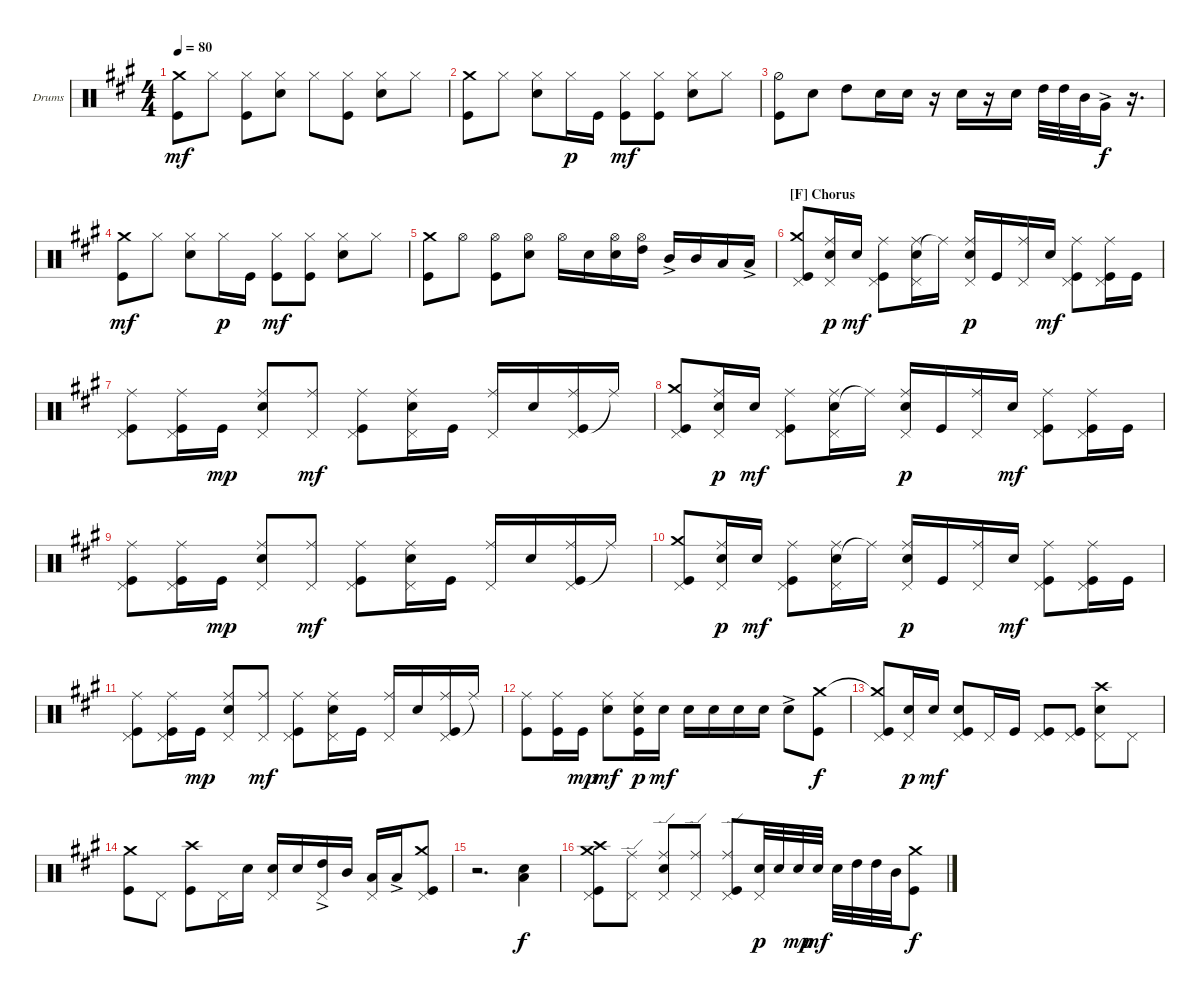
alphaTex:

\defaultSystemsLayout 4
\bracketExtendMode groupsimilarinstruments
\firstSystemTrackNameOrientation horizontal
\otherSystemsTrackNameOrientation horizontal
\track ("Dominic Boyce (Drums)" "Drums") {multiBarRest instrument percussion}
\staff {score}
\articulation defaults
\ts (4 4)
\tempo 80
\clef neutral
\ks a
("Kick (hit)" "Crash medium (hit)").8{dy mf} "Hi-Hat (closed)".8 ("Hi-Hat (closed)" "Kick (hit)").8 ("Hi-Hat (closed)" "Snare (hit) 2").8 "Hi-Hat (closed)".8 ("Kick (hit)" "Hi-Hat (closed)").8 ("Snare (hit) 2" "Hi-Hat (closed)").8 "Hi-Hat (closed)".8 |
("Kick (hit)" "Crash medium (hit)").8 "Hi-Hat (closed)".8 ("Snare (hit) 2" "Hi-Hat (closed)").8 "Hi-Hat (closed)".16{dy p} "Kick (hit)".16 ("Kick (hit)" "Hi-Hat (closed)").8{dy mf} ("Kick (hit)" "Hi-Hat (closed)").8 ("Snare (hit) 2" "Hi-Hat (closed)").8 "Hi-Hat (closed)".8 |
("Kick (hit)" "Hi-Hat (half)").8 "Snare (hit) 2".8 "High Tom (hit)".8 "Snare (hit) 2".16 "Snare (hit) 2".16 r.16 "Snare (hit) 2".16 r.16 "Snare (hit) 2".16 "High Tom (hit)".32 "High Tom (hit)".32 "Mid Tom (hit)".32 "Very Low Tom (hit)"{ac}.16{dy f} r.16{d} |
("Kick (hit)" "Crash medium (hit)").8{dy mf} "Hi-Hat (closed)".8 ("Snare (hit) 2" "Hi-Hat (closed)").8 "Hi-Hat (closed)".16{dy p} "Kick (hit)".16 ("Kick (hit)" "Hi-Hat (closed)").8{dy mf} ("Kick (hit)" "Hi-Hat (closed)").8 ("Snare (hit) 2" "Hi-Hat (closed)").8 "Hi-Hat (closed)".8 |
("Kick (hit)" "Crash medium (hit)").8 "Hi-Hat (open)".8 ("Hi-Hat (open)" "Kick (hit)").8 ("Hi-Hat (open)" "Snare (hit) 2").8 "Hi-Hat (open)".16 "Snare (hit) 2".16 ("Hi-Hat (open)" "Snare (hit) 2").16 ("Hi-Hat (open)" "High Tom (hit)").16 "Mid Tom (hit)"{ac}.16 "Mid Tom (hit)".16 "Low Tom (hit)".16 "Low Tom (hit)"{ac}.16 |
\section ("F" "Chorus")
("Kick (hit)" "Crash medium (hit)" "Pedal Hi-Hat (hit)").8 ("Snare (hit) 2" "Ride (middle)" "Pedal Hi-Hat (hit)").16{dy p} "Snare (hit) 2".16{dy mf} ("Kick (hit)" "Ride (middle)" "Pedal Hi-Hat (hit)").8 ("Snare (hit) 2" "Ride (middle)" "Pedal Hi-Hat (hit)").16 "Ride (middle)"{t}.16 ("Snare (hit) 2" "Ride (middle)" "Pedal Hi-Hat (hit)").16{dy p} "Kick (hit)".16 ("Ride (middle)" "Pedal Hi-Hat (hit)").16 "Snare (hit) 2".16{dy mf} ("Kick (hit)" "Ride (middle)" "Pedal Hi-Hat (hit)").8 ("Kick (hit)" "Ride (middle)" "Pedal Hi-Hat (hit)").16 "Kick (hit)".16 |
("Kick (hit)" "Ride (middle)" "Pedal Hi-Hat (hit)").8 ("Ride (middle)" "Kick (hit)" "Pedal Hi-Hat (hit)").16 "Kick (hit)".16{dy mp} ("Snare (hit) 2" "Pedal Hi-Hat (hit)" "Ride (middle)").8 ("Pedal Hi-Hat (hit)" "Ride (middle)").8{dy mf} ("Kick (hit)" "Ride (middle)" "Pedal Hi-Hat (hit)").8 ("Snare (hit) 2" "Ride (middle)" "Pedal Hi-Hat (hit)").16 "Kick (hit)".16 ("Ride (middle)" "Pedal Hi-Hat (hit)").16 "Snare (hit) 2".16 ("Kick (hit)" "Ride (middle)" "Pedal Hi-Hat (hit)").16 "Ride (middle)"{t}.16 |
("Kick (hit)" "Crash medium (hit)" "Pedal Hi-Hat (hit)").8 ("Snare (hit) 2" "Ride (middle)" "Pedal Hi-Hat (hit)").16{dy p} "Snare (hit) 2".16{dy mf} ("Kick (hit)" "Ride (middle)" "Pedal Hi-Hat (hit)").8 ("Snare (hit) 2" "Ride (middle)" "Pedal Hi-Hat (hit)").16 "Ride (middle)"{t}.16 ("Snare (hit) 2" "Ride (middle)" "Pedal Hi-Hat (hit)").16{dy p} "Kick (hit)".16 ("Ride (middle)" "Pedal Hi-Hat (hit)").16 "Snare (hit) 2".16{dy mf} ("Kick (hit)" "Ride (middle)" "Pedal Hi-Hat (hit)").8 ("Kick (hit)" "Ride (middle)" "Pedal Hi-Hat (hit)").16 "Kick (hit)".16 |
("Kick (hit)" "Ride (middle)" "Pedal Hi-Hat (hit)").8 ("Ride (middle)" "Kick (hit)" "Pedal Hi-Hat (hit)").16 "Kick (hit)".16{dy mp} ("Snare (hit) 2" "Pedal Hi-Hat (hit)" "Ride (middle)").8 ("Pedal Hi-Hat (hit)" "Ride (middle)").8{dy mf} ("Kick (hit)" "Ride (middle)" "Pedal Hi-Hat (hit)").8 ("Snare (hit) 2" "Ride (middle)" "Pedal Hi-Hat (hit)").16 "Kick (hit)".16 ("Ride (middle)" "Pedal Hi-Hat (hit)").16 "Snare (hit) 2".16 ("Kick (hit)" "Ride (middle)" "Pedal Hi-Hat (hit)").16 "Ride (middle)"{t}.16 |
("Kick (hit)" "Crash medium (hit)" "Pedal Hi-Hat (hit)").8 ("Snare (hit) 2" "Ride (middle)" "Pedal Hi-Hat (hit)").16{dy p} "Snare (hit) 2".16{dy mf} ("Kick (hit)" "Ride (middle)" "Pedal Hi-Hat (hit)").8 ("Snare (hit) 2" "Ride (middle)" "Pedal Hi-Hat (hit)").16 "Ride (middle)"{t}.16 ("Snare (hit) 2" "Ride (middle)" "Pedal Hi-Hat (hit)").16{dy p} "Kick (hit)".16 ("Ride (middle)" "Pedal Hi-Hat (hit)").16 "Snare (hit) 2".16{dy mf} ("Kick (hit)" "Ride (middle)" "Pedal Hi-Hat (hit)").8 ("Kick (hit)" "Ride (middle)" "Pedal Hi-Hat (hit)").16 "Kick (hit)".16 |
("Kick (hit)" "Ride (middle)" "Pedal Hi-Hat (hit)").8 ("Ride (middle)" "Kick (hit)" "Pedal Hi-Hat (hit)").16 "Kick (hit)".16{dy mp} ("Snare (hit) 2" "Pedal Hi-Hat (hit)" "Ride (middle)").8 ("Pedal Hi-Hat (hit)" "Ride (middle)").8{dy mf} ("Kick (hit)" "Ride (middle)" "Pedal Hi-Hat (hit)").8 ("Snare (hit) 2" "Ride (middle)" "Pedal Hi-Hat (hit)").16 "Kick (hit)".16 ("Ride (middle)" "Pedal Hi-Hat (hit)").16 "Snare (hit) 2".16 ("Kick (hit)" "Ride (middle)" "Pedal Hi-Hat (hit)").16 "Ride (middle)"{t}.16 |
("Kick (hit)" "Ride (middle)").8 ("Ride (middle)" "Kick (hit)").16 "Kick (hit)".16{dy mp} ("Ride (middle)" "Snare (hit) 2").8{dy mf} ("Ride (middle)" "Kick (hit)" "Snare (hit) 2").16{dy p} "Snare (hit) 2".16{dy mf} "Snare (hit) 2".16 "Snare (hit) 2".16 "Snare (hit) 2".16 "Snare (hit) 2".16 "Snare (hit) 2"{ac}.8 ("Kick (hit)" "Crash medium (hit)").8{dy f} |
("Kick (hit)" "Crash medium (hit)"{t} "Pedal Hi-Hat (hit)").8 ("Snare (hit) 2" "Pedal Hi-Hat (hit)").16{dy p} "Snare (hit) 2".16{dy mf} ("Kick (hit)" "Snare (hit) 2" "Pedal Hi-Hat (hit)").8 "Pedal Hi-Hat (hit)".16 "Kick (hit)".16 ("Kick (hit)" "Pedal Hi-Hat (hit)").8 ("Kick (hit)" "Pedal Hi-Hat (hit)").8 ("Crash high (hit)" "Snare (hit) 2" "Pedal Hi-Hat (hit)").8 "Pedal Hi-Hat (hit)".8 |
("Kick (hit)" "Crash medium (hit)").8 "Pedal Hi-Hat (hit)".8 ("Crash high (hit)" "Kick (hit)").8 "Pedal Hi-Hat (hit)".16 "Snare (hit) 2".16 ("Snare (hit) 2" "Pedal Hi-Hat (hit)").16 "Snare (hit) 2".16 ("High Tom (hit)"{ac} "Pedal Hi-Hat (hit)").16 "Mid Tom (hit)".16 ("Low Tom (hit)" "Pedal Hi-Hat (hit)").16 "Low Tom (hit)"{ac}.16 ("Pedal Hi-Hat (hit)" "Kick (hit)" "Crash medium (hit)").8 |
r.2{d} ("Low Tom (hit)" "Snare (hit) 2").4{dy f} |
("Kick (hit)" "Pedal Hi-Hat (hit)" "Crash medium (hit)" "Crash high (hit)").8 ("Pedal Hi-Hat (hit)" "Ride (edge)").8 ("Snare (hit) 2" "Pedal Hi-Hat (hit)" "Ride (edge)").8 ("Pedal Hi-Hat (hit)" "Ride (edge)").8 ("Kick (hit)" "Pedal Hi-Hat (hit)" "Ride (edge)").8 ("Pedal Hi-Hat (hit)" "Snare (hit) 2").32{dy p} "Snare (hit) 2".32 "Snare (hit) 2".32{dy mp} "Snare (hit) 2".32{dy mf} "Snare (hit) 2".32 "High Tom (hit)".32 "High Tom (hit)".32 "Mid Tom (hit)".32 ("Kick (hit)" "Crash medium (hit)").8{dy f}
